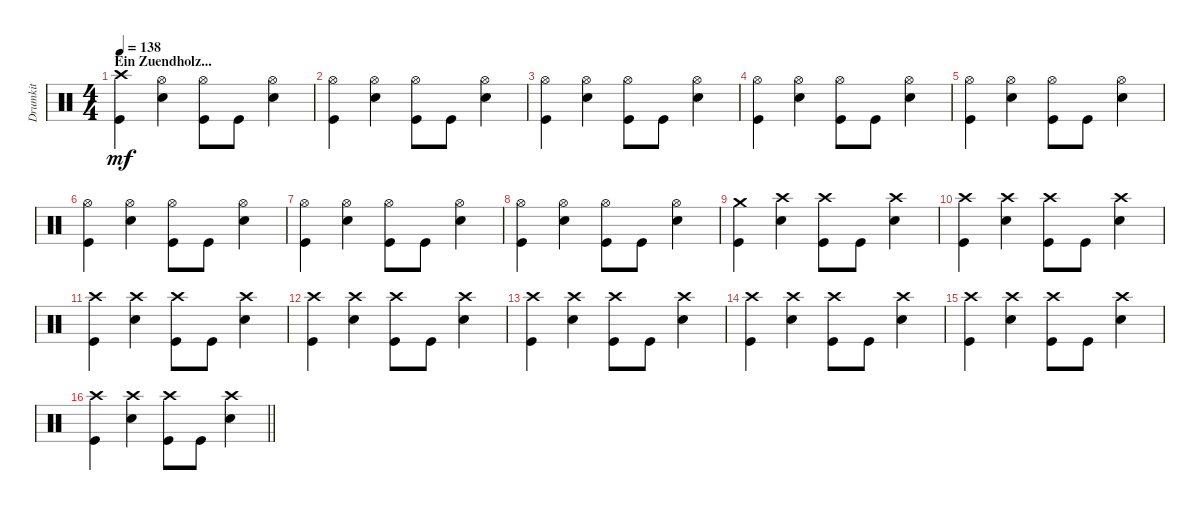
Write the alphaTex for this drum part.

\track ("Drumkit" "Drumkit") {instrument percussion}
\staff {score}
\articulation defaults
\ts (4 4)
\section ("" "Ein Zuendholz...")
\tempo 138
\clef neutral
\ks c
("Crash high (hit)" "Kick (hit)").4{dy mf} ("Hi-Hat (open)" "Snare (hit) 2").4 ("Hi-Hat (open)" "Kick (hit)").8 "Kick (hit)".8 ("Hi-Hat (open)" "Snare (hit) 2").4 |
("Hi-Hat (open)" "Kick (hit)").4 ("Hi-Hat (open)" "Snare (hit) 2").4 ("Hi-Hat (open)" "Kick (hit)").8 "Kick (hit)".8 ("Hi-Hat (open)" "Snare (hit) 2").4 |
("Hi-Hat (open)" "Kick (hit)").4 ("Hi-Hat (open)" "Snare (hit) 2").4 ("Hi-Hat (open)" "Kick (hit)").8 "Kick (hit)".8 ("Hi-Hat (open)" "Snare (hit) 2").4 |
("Hi-Hat (open)" "Kick (hit)").4 ("Hi-Hat (open)" "Snare (hit) 2").4 ("Hi-Hat (open)" "Kick (hit)").8 "Kick (hit)".8 ("Hi-Hat (open)" "Snare (hit) 2").4 |
("Hi-Hat (open)" "Kick (hit)").4 ("Hi-Hat (open)" "Snare (hit) 2").4 ("Hi-Hat (open)" "Kick (hit)").8 "Kick (hit)".8 ("Hi-Hat (open)" "Snare (hit) 2").4 |
("Hi-Hat (open)" "Kick (hit)").4 ("Hi-Hat (open)" "Snare (hit) 2").4 ("Hi-Hat (open)" "Kick (hit)").8 "Kick (hit)".8 ("Hi-Hat (open)" "Snare (hit) 2").4 |
("Hi-Hat (open)" "Kick (hit)").4 ("Hi-Hat (open)" "Snare (hit) 2").4 ("Hi-Hat (open)" "Kick (hit)").8 "Kick (hit)".8 ("Hi-Hat (open)" "Snare (hit) 2").4 |
("Hi-Hat (open)" "Kick (hit)").4 ("Hi-Hat (open)" "Snare (hit) 2").4 ("Hi-Hat (open)" "Kick (hit)").8 "Kick (hit)".8 ("Hi-Hat (open)" "Snare (hit) 2").4 |
("Crash medium (hit)" "Kick (hit)").4 ("Crash high (hit)" "Snare (hit) 2").4 ("Crash high (hit)" "Kick (hit)").8 "Kick (hit)".8 ("Crash high (hit)" "Snare (hit) 2").4 |
("Crash high (hit)" "Kick (hit)").4 ("Crash high (hit)" "Snare (hit) 2").4 ("Crash high (hit)" "Kick (hit)").8 "Kick (hit)".8 ("Crash high (hit)" "Snare (hit) 2").4 |
("Crash high (hit)" "Kick (hit)").4 ("Crash high (hit)" "Snare (hit) 2").4 ("Crash high (hit)" "Kick (hit)").8 "Kick (hit)".8 ("Crash high (hit)" "Snare (hit) 2").4 |
("Crash high (hit)" "Kick (hit)").4 ("Crash high (hit)" "Snare (hit) 2").4 ("Crash high (hit)" "Kick (hit)").8 "Kick (hit)".8 ("Crash high (hit)" "Snare (hit) 2").4 |
("Crash high (hit)" "Kick (hit)").4 ("Crash high (hit)" "Snare (hit) 2").4 ("Crash high (hit)" "Kick (hit)").8 "Kick (hit)".8 ("Crash high (hit)" "Snare (hit) 2").4 |
("Crash high (hit)" "Kick (hit)").4 ("Crash high (hit)" "Snare (hit) 2").4 ("Crash high (hit)" "Kick (hit)").8 "Kick (hit)".8 ("Crash high (hit)" "Snare (hit) 2").4 |
("Crash high (hit)" "Kick (hit)").4 ("Crash high (hit)" "Snare (hit) 2").4 ("Crash high (hit)" "Kick (hit)").8 "Kick (hit)".8 ("Crash high (hit)" "Snare (hit) 2").4 |
\barLineRight lightlight
("Crash high (hit)" "Kick (hit)").4 ("Crash high (hit)" "Snare (hit) 2").4 ("Crash high (hit)" "Kick (hit)").8 "Kick (hit)".8 ("Crash high (hit)" "Snare (hit) 2").4
